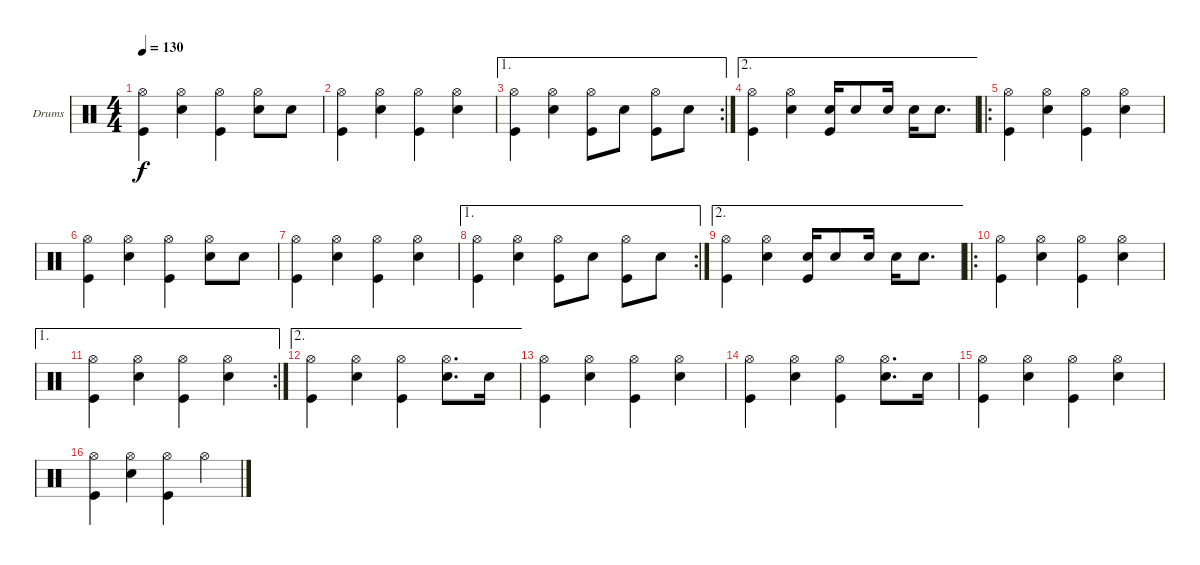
\bracketExtendMode groupsimilarinstruments
\firstSystemTrackNameOrientation horizontal
\otherSystemsTrackNameOrientation horizontal
\track ("Drumkit" "Drums") {instrument percussion}
\staff {score}
\articulation defaults
\ts (4 4)
\tempo 130
\clef neutral
\ks c
("Hi-Hat (open)" "Kick (hit)").4{dy f} ("Hi-Hat (open)" "Snare (hit) 2").4 ("Hi-Hat (open)" "Kick (hit)").4 ("Hi-Hat (open)" "Snare (hit) 2").8 "Snare (hit) 2".8 |
("Hi-Hat (open)" "Kick (hit)").4 ("Hi-Hat (open)" "Snare (hit) 2").4 ("Hi-Hat (open)" "Kick (hit)").4 ("Hi-Hat (open)" "Snare (hit) 2").4 |
\ae 1
\rc 2
("Hi-Hat (open)" "Kick (hit)").4 ("Hi-Hat (open)" "Snare (hit) 2").4 ("Hi-Hat (open)" "Kick (hit)").8 "Snare (hit) 2".8 ("Hi-Hat (open)" "Kick (hit)").8 "Snare (hit) 2".8 |
\ae 2
("Hi-Hat (open)" "Kick (hit)").4 ("Hi-Hat (open)" "Snare (hit) 2").4 ("Snare (hit) 2" "Kick (hit)").16 "Snare (hit) 2".8 "Snare (hit) 2".16 "Snare (hit) 2".16 "Snare (hit) 2".8{d} |
\ro
("Hi-Hat (open)" "Kick (hit)").4 ("Hi-Hat (open)" "Snare (hit) 2").4 ("Hi-Hat (open)" "Kick (hit)").4 ("Hi-Hat (open)" "Snare (hit) 2").4 |
("Hi-Hat (open)" "Kick (hit)").4 ("Hi-Hat (open)" "Snare (hit) 2").4 ("Hi-Hat (open)" "Kick (hit)").4 ("Hi-Hat (open)" "Snare (hit) 2").8 "Snare (hit) 2".8 |
("Hi-Hat (open)" "Kick (hit)").4 ("Hi-Hat (open)" "Snare (hit) 2").4 ("Hi-Hat (open)" "Kick (hit)").4 ("Hi-Hat (open)" "Snare (hit) 2").4 |
\ae 1
\rc 2
("Hi-Hat (open)" "Kick (hit)").4 ("Hi-Hat (open)" "Snare (hit) 2").4 ("Hi-Hat (open)" "Kick (hit)").8 "Snare (hit) 2".8 ("Hi-Hat (open)" "Kick (hit)").8 "Snare (hit) 2".8 |
\ae 2
("Hi-Hat (open)" "Kick (hit)").4 ("Hi-Hat (open)" "Snare (hit) 2").4 ("Snare (hit) 2" "Kick (hit)").16 "Snare (hit) 2".8 "Snare (hit) 2".16 "Snare (hit) 2".16 "Snare (hit) 2".8{d} |
\ro
("Hi-Hat (open)" "Kick (hit)").4 ("Hi-Hat (open)" "Snare (hit) 2").4 ("Hi-Hat (open)" "Kick (hit)").4 ("Hi-Hat (open)" "Snare (hit) 2").4 |
\ae 1
\rc 2
("Hi-Hat (open)" "Kick (hit)").4 ("Hi-Hat (open)" "Snare (hit) 2").4 ("Hi-Hat (open)" "Kick (hit)").4 ("Hi-Hat (open)" "Snare (hit) 2").4 |
\ae 2
("Hi-Hat (open)" "Kick (hit)").4 ("Hi-Hat (open)" "Snare (hit) 2").4 ("Hi-Hat (open)" "Kick (hit)").4 ("Hi-Hat (open)" "Snare (hit) 2").8{d} "Snare (hit) 2".16 |
("Hi-Hat (open)" "Kick (hit)").4 ("Hi-Hat (open)" "Snare (hit) 2").4 ("Hi-Hat (open)" "Kick (hit)").4 ("Hi-Hat (open)" "Snare (hit) 2").4 |
("Hi-Hat (open)" "Kick (hit)").4 ("Hi-Hat (open)" "Snare (hit) 2").4 ("Hi-Hat (open)" "Kick (hit)").4 ("Hi-Hat (open)" "Snare (hit) 2").8{d} "Snare (hit) 2".16 |
("Hi-Hat (open)" "Kick (hit)").4 ("Hi-Hat (open)" "Snare (hit) 2").4 ("Hi-Hat (open)" "Kick (hit)").4 ("Hi-Hat (open)" "Snare (hit) 2").4 |
("Hi-Hat (open)" "Kick (hit)").4 ("Hi-Hat (open)" "Snare (hit) 2").4 ("Hi-Hat (open)" "Kick (hit)").4 "Hi-Hat (open)".4
